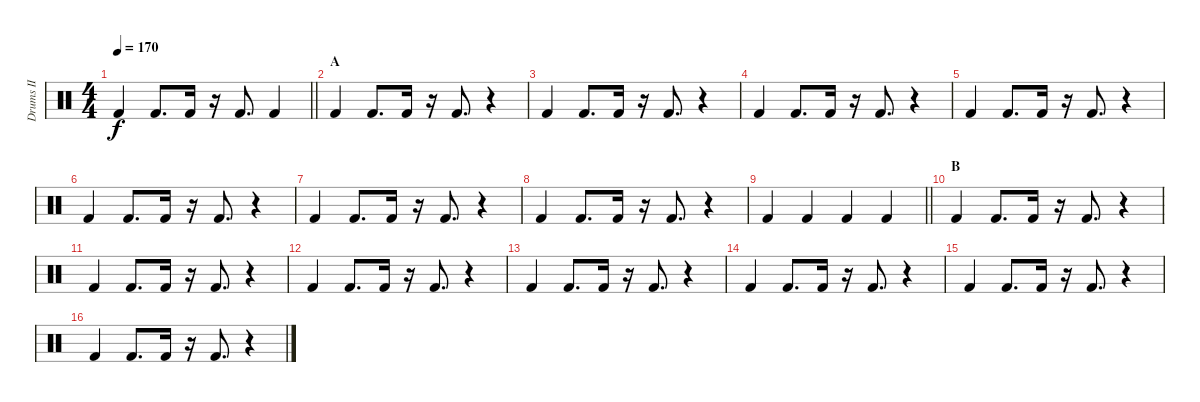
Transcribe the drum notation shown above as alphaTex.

\track ("Drums II" "Drums II") {instrument percussion}
\staff {score}
\articulation defaults
\ts (4 4)
\tempo 170
\clef neutral
\barLineRight lightlight
\ks c "Kick (hit) 2".4{dy f} "Kick (hit) 2".8{d} "Kick (hit) 2".16
r.16 "Kick (hit) 2".8{d} "Kick (hit) 2".4 |
\section ("" "A")
"Kick (hit) 2".4 "Kick (hit) 2".8{d} "Kick (hit) 2".16 r.16 "Kick (hit) 2".8{d} r.4 |
"Kick (hit) 2".4 "Kick (hit) 2".8{d} "Kick (hit) 2".16 r.16 "Kick (hit) 2".8{d} r.4 |
"Kick (hit) 2".4 "Kick (hit) 2".8{d} "Kick (hit) 2".16 r.16 "Kick (hit) 2".8{d} r.4 |
"Kick (hit) 2".4 "Kick (hit) 2".8{d} "Kick (hit) 2".16 r.16 "Kick (hit) 2".8{d} r.4 |
"Kick (hit) 2".4 "Kick (hit) 2".8{d} "Kick (hit) 2".16 r.16 "Kick (hit) 2".8{d} r.4 |
"Kick (hit) 2".4 "Kick (hit) 2".8{d} "Kick (hit) 2".16 r.16 "Kick (hit) 2".8{d} r.4 |
"Kick (hit) 2".4 "Kick (hit) 2".8{d} "Kick (hit) 2".16 r.16 "Kick (hit) 2".8{d} r.4 |
\barLineRight lightlight "Kick (hit) 2".4 "Kick (hit) 2".4 "Kick (hit) 2".4 "Kick (hit) 2".4
|
\section ("" "B")
"Kick (hit) 2".4 "Kick (hit) 2".8{d} "Kick (hit) 2".16 r.16 "Kick (hit) 2".8{d} r.4 |
"Kick (hit) 2".4 "Kick (hit) 2".8{d} "Kick (hit) 2".16 r.16 "Kick (hit) 2".8{d} r.4 |
"Kick (hit) 2".4 "Kick (hit) 2".8{d} "Kick (hit) 2".16 r.16 "Kick (hit) 2".8{d} r.4 |
"Kick (hit) 2".4 "Kick (hit) 2".8{d} "Kick (hit) 2".16 r.16 "Kick (hit) 2".8{d} r.4 |
"Kick (hit) 2".4 "Kick (hit) 2".8{d} "Kick (hit) 2".16 r.16 "Kick (hit) 2".8{d} r.4 |
"Kick (hit) 2".4 "Kick (hit) 2".8{d} "Kick (hit) 2".16 r.16 "Kick (hit) 2".8{d} r.4 |
"Kick (hit) 2".4 "Kick (hit) 2".8{d} "Kick (hit) 2".16 r.16 "Kick (hit) 2".8{d} r.4
